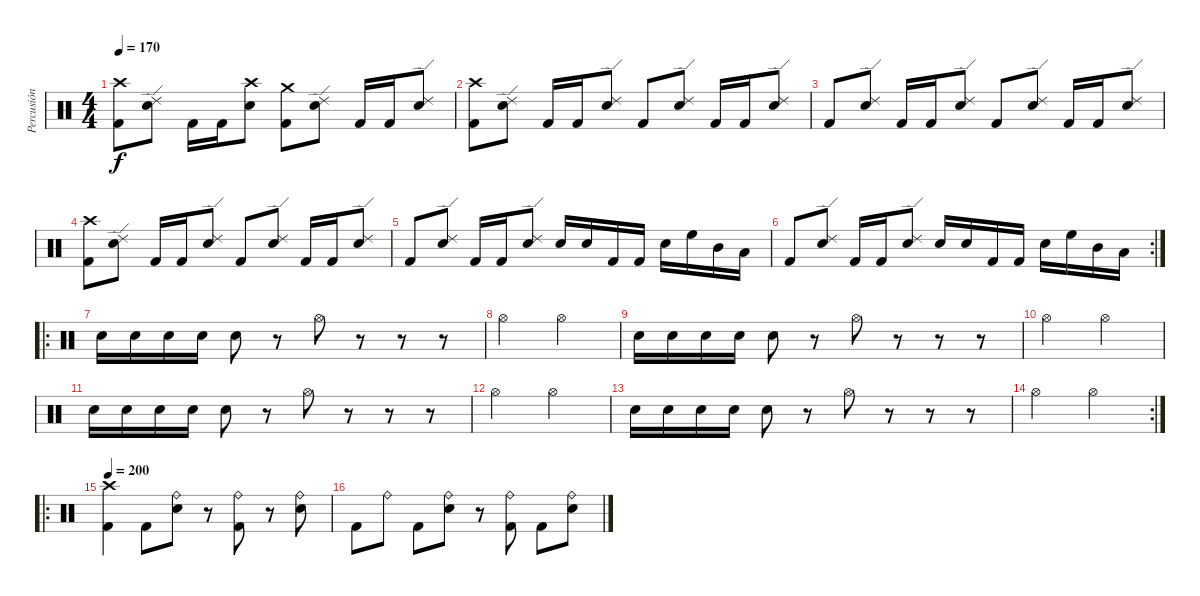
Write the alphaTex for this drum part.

\track ("Percusión" "Percusión") {instrument percussion}
\staff {score}
\articulation defaults
\ts (4 4)
\tempo 170
\clef neutral
\ks c
("Crash high (hit)" "Kick (hit) 2").8{dy f} ("Ride (edge) 2" "Electric Snare (hit)").8 "Kick (hit) 2".16 "Kick (hit) 2".16 ("Crash high (hit)" "Electric Snare (hit)").8 ("Crash medium (hit)" "Kick (hit) 2").8 ("Ride (edge) 2" "Electric Snare (hit)").8 "Kick (hit) 2".16 "Kick (hit) 2".16 ("Ride (edge) 2" "Electric Snare (hit)").8 |
("Crash high (hit)" "Kick (hit) 2").8 ("Ride (edge) 2" "Electric Snare (hit)").8 "Kick (hit) 2".16 "Kick (hit) 2".16 ("Ride (edge) 2" "Electric Snare (hit)").8 "Kick (hit) 2".8 ("Ride (edge) 2" "Electric Snare (hit)").8 "Kick (hit) 2".16 "Kick (hit) 2".16 ("Ride (edge) 2" "Electric Snare (hit)").8 |
"Kick (hit) 2".8 ("Ride (edge) 2" "Electric Snare (hit)").8 "Kick (hit) 2".16 "Kick (hit) 2".16 ("Ride (edge) 2" "Electric Snare (hit)").8 "Kick (hit) 2".8 ("Ride (edge) 2" "Electric Snare (hit)").8 "Kick (hit) 2".16 "Kick (hit) 2".16 ("Ride (edge) 2" "Electric Snare (hit)").8 |
("Crash high (hit)" "Kick (hit) 2").8 ("Ride (edge) 2" "Electric Snare (hit)").8 "Kick (hit) 2".16 "Kick (hit) 2".16 ("Ride (edge) 2" "Electric Snare (hit)").8 "Kick (hit) 2".8 ("Ride (edge) 2" "Electric Snare (hit)").8 "Kick (hit) 2".16 "Kick (hit) 2".16 ("Ride (edge) 2" "Electric Snare (hit)").8 |
"Kick (hit) 2".8 ("Ride (edge) 2" "Electric Snare (hit)").8 "Kick (hit) 2".16 "Kick (hit) 2".16 ("Ride (edge) 2" "Electric Snare (hit)").8 "Electric Snare (hit)".16 "Electric Snare (hit)".16 "Kick (hit) 2".16 "Kick (hit) 2".16 "Electric Snare (hit)".16 "High Floor Tom (hit)".16 "Mid Tom (hit)".16 "Low Tom (hit)".16 |
\rc 2 "Kick (hit) 2".8
("Ride (edge) 2" "Electric Snare (hit)").8 "Kick (hit) 2".16 "Kick (hit) 2".16 ("Ride (edge) 2" "Electric Snare (hit)").8 "Electric Snare (hit)".16 "Electric Snare (hit)".16 "Kick (hit) 2".16 "Kick (hit) 2".16 "Electric Snare (hit)".16 "High Floor Tom (hit)".16 "Mid Tom (hit)".16 "Low Tom (hit)".16 |
\ro "Electric Snare (hit)".16 "Electric Snare (hit)".16 "Electric Snare (hit)".16 "Electric Snare (hit)".16 "Electric Snare (hit)".8
r.8 "Hi-Hat (open)".8 r.8 r.8 r.8 |
"Hi-Hat (open)".2 "Hi-Hat (open)".2 |
"Electric Snare (hit)".16 "Electric Snare (hit)".16 "Electric Snare (hit)".16 "Electric Snare (hit)".16 "Electric Snare (hit)".8 r.8 "Hi-Hat (open)".8 r.8 r.8 r.8 |
"Hi-Hat (open)".2 "Hi-Hat (open)".2 |
"Electric Snare (hit)".16 "Electric Snare (hit)".16 "Electric Snare (hit)".16 "Electric Snare (hit)".16 "Electric Snare (hit)".8 r.8 "Hi-Hat (open)".8 r.8 r.8 r.8 |
"Hi-Hat (open)".2 "Hi-Hat (open)".2 |
"Electric Snare (hit)".16 "Electric Snare (hit)".16 "Electric Snare (hit)".16 "Electric Snare (hit)".16 "Electric Snare (hit)".8 r.8 "Hi-Hat (open)".8 r.8 r.8 r.8 |
\rc 2 "Hi-Hat (open)".2 "Hi-Hat (open)".2
|
\ro
\tempo 200
("Crash high (hit)" "Kick (hit) 2").4 "Kick (hit) 2".8 ("Ride (bell)" "Electric Snare (hit)").8 r.8 ("Ride (bell)" "Kick (hit) 2").8 r.8 ("Ride (bell)" "Electric Snare (hit)").8 |
"Kick (hit) 2".8 "Ride (bell)".8 "Kick (hit) 2".8 ("Ride (bell)" "Electric Snare (hit)").8 r.8 ("Ride (bell)" "Kick (hit) 2").8 "Kick (hit) 2".8 ("Ride (bell)" "Electric Snare (hit)").8
